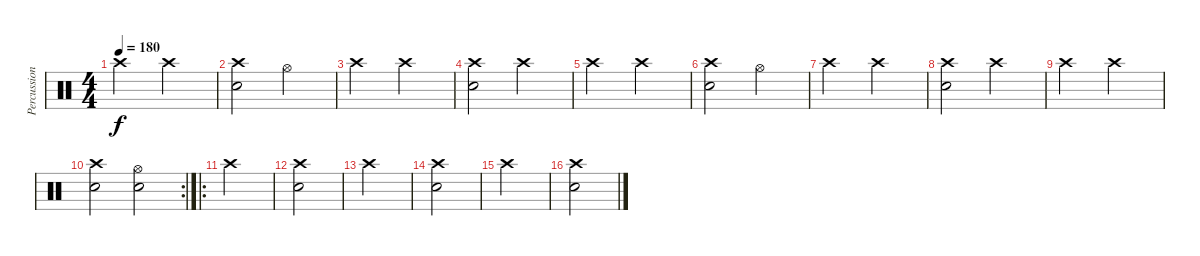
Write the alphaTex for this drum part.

\track ("Percussion" "Percussion") {instrument percussion}
\staff {score}
\articulation defaults
\ts (4 4)
\tempo 180
\clef neutral
\ks c "Crash high (hit)".2{dy f} "Crash high (hit)".2
|
("Crash high (hit)" "Snare (hit) 2").2 "Hi-Hat (open)".2 |
"Crash high (hit)".2 "Crash high (hit)".2 |
("Crash high (hit)" "Snare (hit) 2").2 "Crash high (hit)".2 |
"Crash high (hit)".2 "Crash high (hit)".2 |
("Crash high (hit)" "Snare (hit) 2").2 "Hi-Hat (open)".2 |
"Crash high (hit)".2 "Crash high (hit)".2 |
("Crash high (hit)" "Snare (hit) 2").2 "Crash high (hit)".2 |
"Crash high (hit)".2 "Crash high (hit)".2 |
\rc 2
("Crash high (hit)" "Snare (hit) 2").2 ("Hi-Hat (open)" "Snare (hit) 2").2 |
\ro "Crash high (hit)".2
|
("Crash high (hit)" "Snare (hit) 2").2 |
"Crash high (hit)".2 |
("Crash high (hit)" "Snare (hit) 2").2 |
"Crash high (hit)".2 |
("Crash high (hit)" "Snare (hit) 2").2
